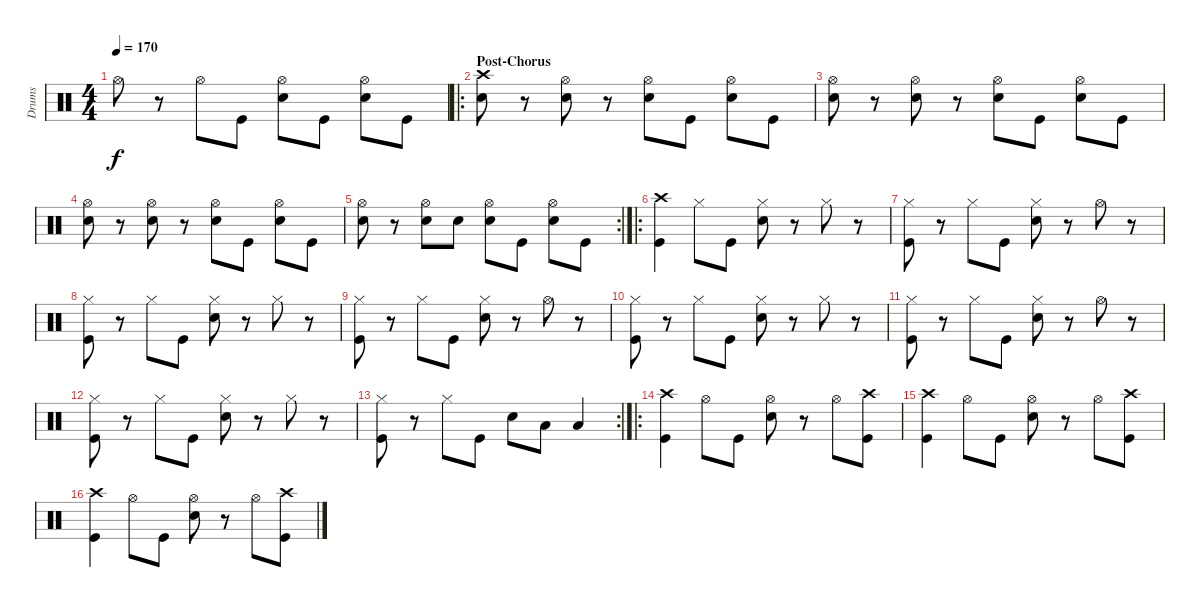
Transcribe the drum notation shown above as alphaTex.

\track ("Drums" "Drums") {instrument percussion}
\staff {score}
\articulation defaults
\ts (4 4)
\tempo 170
\clef neutral
\ks c "Hi-Hat (open)".8{dy f}
r.8 "Hi-Hat (open)".8 "Kick (hit)".8 ("Hi-Hat (open)" "Snare (hit) 2").8 "Kick (hit)".8 ("Hi-Hat (open)" "Snare (hit) 2").8 "Kick (hit)".8 |
\ro
\section ("" "Post-Chorus")
("Crash high (hit)" "Snare (hit) 2").8 r.8 ("Hi-Hat (open)" "Snare (hit) 2").8 r.8 ("Hi-Hat (open)" "Snare (hit) 2").8 "Kick (hit)".8 ("Hi-Hat (open)" "Snare (hit) 2").8 "Kick (hit)".8 |
("Hi-Hat (open)" "Snare (hit) 2").8 r.8 ("Hi-Hat (open)" "Snare (hit) 2").8 r.8 ("Hi-Hat (open)" "Snare (hit) 2").8 "Kick (hit)".8 ("Hi-Hat (open)" "Snare (hit) 2").8 "Kick (hit)".8 |
("Hi-Hat (open)" "Snare (hit) 2").8 r.8 ("Hi-Hat (open)" "Snare (hit) 2").8 r.8 ("Hi-Hat (open)" "Snare (hit) 2").8 "Kick (hit)".8 ("Hi-Hat (open)" "Snare (hit) 2").8 "Kick (hit)".8 |
\rc 2
("Hi-Hat (open)" "Snare (hit) 2").8 r.8 ("Hi-Hat (open)" "Snare (hit) 2").8 "Snare (hit) 2".8 ("Hi-Hat (open)" "Snare (hit) 2").8 "Kick (hit)".8 ("Hi-Hat (open)" "Snare (hit) 2").8 "Kick (hit)".8 |
\ro
("Crash high (hit)" "Kick (hit)").4 "Hi-Hat (closed)".8 "Kick (hit)".8 ("Hi-Hat (closed)" "Snare (hit) 2").8 r.8 "Hi-Hat (closed)".8 r.8 |
("Hi-Hat (closed)" "Kick (hit)").8 r.8 "Hi-Hat (closed)".8 "Kick (hit)".8 ("Hi-Hat (closed)" "Snare (hit) 2").8 r.8 "Hi-Hat (open)".8 r.8 |
("Hi-Hat (closed)" "Kick (hit)").8 r.8 "Hi-Hat (closed)".8 "Kick (hit)".8 ("Hi-Hat (closed)" "Snare (hit) 2").8 r.8 "Hi-Hat (closed)".8 r.8 |
("Hi-Hat (closed)" "Kick (hit)").8 r.8 "Hi-Hat (closed)".8 "Kick (hit)".8 ("Hi-Hat (closed)" "Snare (hit) 2").8 r.8 "Hi-Hat (open)".8 r.8 |
("Hi-Hat (closed)" "Kick (hit)").8 r.8 "Hi-Hat (closed)".8 "Kick (hit)".8 ("Hi-Hat (closed)" "Snare (hit) 2").8 r.8 "Hi-Hat (closed)".8 r.8 |
("Hi-Hat (closed)" "Kick (hit)").8 r.8 "Hi-Hat (closed)".8 "Kick (hit)".8 ("Hi-Hat (closed)" "Snare (hit) 2").8 r.8 "Hi-Hat (open)".8 r.8 |
("Hi-Hat (closed)" "Kick (hit)").8 r.8 "Hi-Hat (closed)".8 "Kick (hit)".8 ("Hi-Hat (closed)" "Snare (hit) 2").8 r.8 "Hi-Hat (closed)".8 r.8 |
\rc 2
("Hi-Hat (closed)" "Kick (hit)").8 r.8 "Hi-Hat (closed)".8 "Kick (hit)".8 "Snare (hit) 2".8 "Low Tom (hit)".8 "Low Floor Tom (hit)".4 |
\ro
("Crash high (hit)" "Kick (hit)").4 "Hi-Hat (open)".8 "Kick (hit)".8 ("Hi-Hat (open)" "Snare (hit) 2").8 r.8 "Hi-Hat (open)".8 ("Crash high (hit)" "Kick (hit)").8 |
("Crash high (hit)" "Kick (hit)").4 "Hi-Hat (open)".8 "Kick (hit)".8 ("Hi-Hat (open)" "Snare (hit) 2").8 r.8 "Hi-Hat (open)".8 ("Crash high (hit)" "Kick (hit)").8 |
("Crash high (hit)" "Kick (hit)").4 "Hi-Hat (open)".8 "Kick (hit)".8 ("Hi-Hat (open)" "Snare (hit) 2").8 r.8 "Hi-Hat (open)".8 ("Crash high (hit)" "Kick (hit)").8
